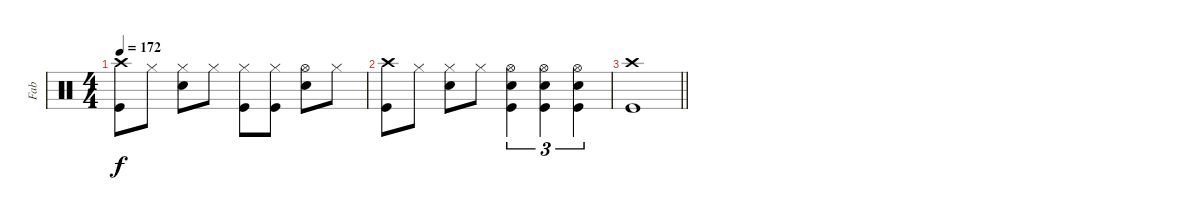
\track ("Fab" "Fab") {instrument percussion}
\staff {score}
\articulation defaults
\ts (4 4)
\tempo 172
\clef neutral
\ks c
("Crash high (hit)" "Kick (hit)").8{dy f} "Hi-Hat (closed)".8 ("Hi-Hat (closed)" "Snare (hit) 2").8 "Hi-Hat (closed)".8 ("Hi-Hat (closed)" "Kick (hit)").8 ("Hi-Hat (closed)" "Kick (hit)").8 ("Hi-Hat (open)" "Snare (hit) 2").8 "Hi-Hat (closed)".8 |
("Crash high (hit)" "Kick (hit)").8 "Hi-Hat (closed)".8 ("Hi-Hat (closed)" "Snare (hit) 2").8 "Hi-Hat (closed)".8 ("Hi-Hat (open)" "Snare (hit) 2" "Kick (hit)").4{tu (3 2)} ("Hi-Hat (open)" "Snare (hit) 2" "Kick (hit)").4{tu (3 2)} ("Hi-Hat (open)" "Snare (hit) 2" "Kick (hit)").4{tu (3 2)} |
\barLineRight lightlight
("Crash high (hit)" "Kick (hit)").1
